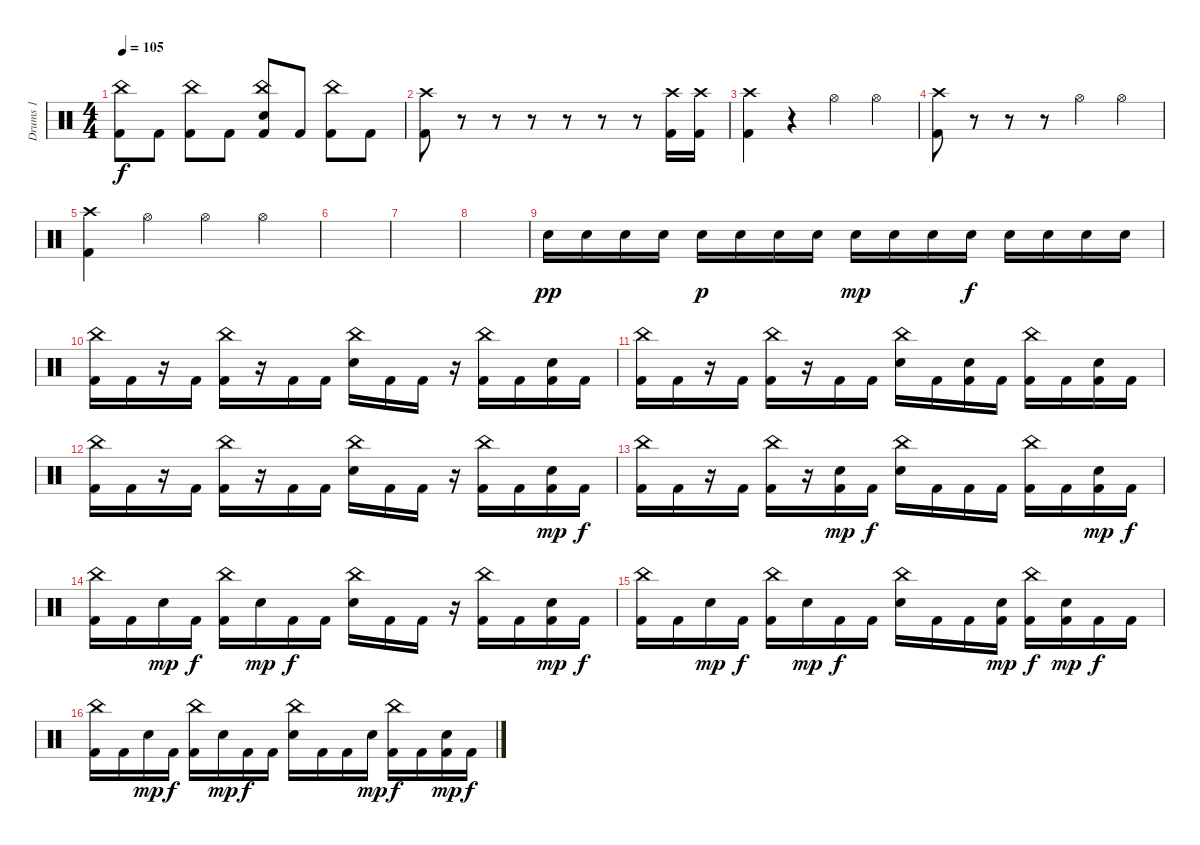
\track ("Drums 1" "Drums 1") {instrument percussion}
\staff
\articulation defaults
\ts (4 4)
\tempo 105
\clef neutral
\ks c
("Kick (hit) 2" "China (hit)").8{dy f} "Kick (hit) 2".8 ("Kick (hit) 2" "China (hit)").8 "Kick (hit) 2".8 ("Kick (hit) 2" "Electric Snare (hit)" "China (hit)").8 "Kick (hit) 2".8 ("Kick (hit) 2" "China (hit)").8 "Kick (hit) 2".8 |
("Crash high (hit)" "Kick (hit) 2").8 r.8 r.8 r.8 r.8 r.8 r.8 ("Crash high (hit)" "Kick (hit) 2").16 ("Crash high (hit)" "Kick (hit) 2").16 |
("Crash high (hit)" "Kick (hit) 2").4 r.4 "Hi-Hat (open)".4 "Hi-Hat (open)".4 |
("Crash high (hit)" "Kick (hit) 2").8 r.8 r.8 r.8 "Hi-Hat (open)".4 "Hi-Hat (open)".4 |
("Crash high (hit)" "Kick (hit) 2").4 "Hi-Hat (open)".4 "Hi-Hat (open)".4 "Hi-Hat (open)".4 |
|
|
|
"Electric Snare (hit)".16{dy pp} "Electric Snare (hit)".16 "Electric Snare (hit)".16 "Electric Snare (hit)".16 "Electric Snare (hit)".16{dy p} "Electric Snare (hit)".16 "Electric Snare (hit)".16 "Electric Snare (hit)".16 "Electric Snare (hit)".16{dy mp} "Electric Snare (hit)".16 "Electric Snare (hit)".16 "Electric Snare (hit)".16{dy f} "Electric Snare (hit)".16 "Electric Snare (hit)".16 "Electric Snare (hit)".16 "Electric Snare (hit)".16 |
("China (hit)" "Kick (hit) 2").16 "Kick (hit) 2".16 r.16 "Kick (hit) 2".16 ("China (hit)" "Kick (hit) 2").16 r.16 "Kick (hit) 2".16 "Kick (hit) 2".16 ("China (hit)" "Electric Snare (hit)").16 "Kick (hit) 2".16 "Kick (hit) 2".16 r.16 ("China (hit)" "Kick (hit) 2").16 "Kick (hit) 2".16 ("Electric Snare (hit)" "Kick (hit) 2").16 "Kick (hit) 2".16 |
("China (hit)" "Kick (hit) 2").16 "Kick (hit) 2".16 r.16 "Kick (hit) 2".16 ("China (hit)" "Kick (hit) 2").16 r.16 "Kick (hit) 2".16 "Kick (hit) 2".16 ("China (hit)" "Electric Snare (hit)").16 "Kick (hit) 2".16 ("Electric Snare (hit)" "Kick (hit) 2").16 "Kick (hit) 2".16 ("China (hit)" "Kick (hit) 2").16 "Kick (hit) 2".16 ("Electric Snare (hit)" "Kick (hit) 2").16 "Kick (hit) 2".16 |
("China (hit)" "Kick (hit) 2").16 "Kick (hit) 2".16 r.16 "Kick (hit) 2".16 ("China (hit)" "Kick (hit) 2").16 r.16 "Kick (hit) 2".16 "Kick (hit) 2".16 ("China (hit)" "Electric Snare (hit)").16 "Kick (hit) 2".16 "Kick (hit) 2".16 r.16 ("China (hit)" "Kick (hit) 2").16 "Kick (hit) 2".16 ("Electric Snare (hit)" "Kick (hit) 2").16{dy mp} "Kick (hit) 2".16{dy f} |
("China (hit)" "Kick (hit) 2").16 "Kick (hit) 2".16 r.16 "Kick (hit) 2".16 ("China (hit)" "Kick (hit) 2").16 r.16 ("Electric Snare (hit)" "Kick (hit) 2").16{dy mp} "Kick (hit) 2".16{dy f} ("China (hit)" "Electric Snare (hit)").16 "Kick (hit) 2".16 "Kick (hit) 2".16 "Kick (hit) 2".16 ("China (hit)" "Kick (hit) 2").16 "Kick (hit) 2".16 ("Electric Snare (hit)" "Kick (hit) 2").16{dy mp} "Kick (hit) 2".16{dy f} |
("China (hit)" "Kick (hit) 2").16 "Kick (hit) 2".16 "Electric Snare (hit)".16{dy mp} "Kick (hit) 2".16{dy f} ("China (hit)" "Kick (hit) 2").16 "Electric Snare (hit)".16{dy mp} "Kick (hit) 2".16{dy f} "Kick (hit) 2".16 ("China (hit)" "Electric Snare (hit)").16 "Kick (hit) 2".16 "Kick (hit) 2".16 r.16 ("China (hit)" "Kick (hit) 2").16 "Kick (hit) 2".16 ("Electric Snare (hit)" "Kick (hit) 2").16{dy mp} "Kick (hit) 2".16{dy f} |
("China (hit)" "Kick (hit) 2").16 "Kick (hit) 2".16 "Electric Snare (hit)".16{dy mp} "Kick (hit) 2".16{dy f} ("China (hit)" "Kick (hit) 2").16 "Electric Snare (hit)".16{dy mp} "Kick (hit) 2".16{dy f} "Kick (hit) 2".16 ("China (hit)" "Electric Snare (hit)").16 "Kick (hit) 2".16 "Kick (hit) 2".16 ("Electric Snare (hit)" "Kick (hit) 2").16{dy mp} ("China (hit)" "Kick (hit) 2").16{dy f} ("Electric Snare (hit)" "Kick (hit) 2").16{dy mp} "Kick (hit) 2".16{dy f} "Kick (hit) 2".16 |
("China (hit)" "Kick (hit) 2").16 "Kick (hit) 2".16 "Electric Snare (hit)".16{dy mp} "Kick (hit) 2".16{dy f} ("China (hit)" "Kick (hit) 2").16 "Electric Snare (hit)".16{dy mp} "Kick (hit) 2".16{dy f} "Kick (hit) 2".16 ("China (hit)" "Electric Snare (hit)").16 "Kick (hit) 2".16 "Kick (hit) 2".16 "Electric Snare (hit)".16{dy mp} ("China (hit)" "Kick (hit) 2").16{dy f} "Kick (hit) 2".16 ("Electric Snare (hit)" "Kick (hit) 2").16{dy mp} "Kick (hit) 2".16{dy f}
